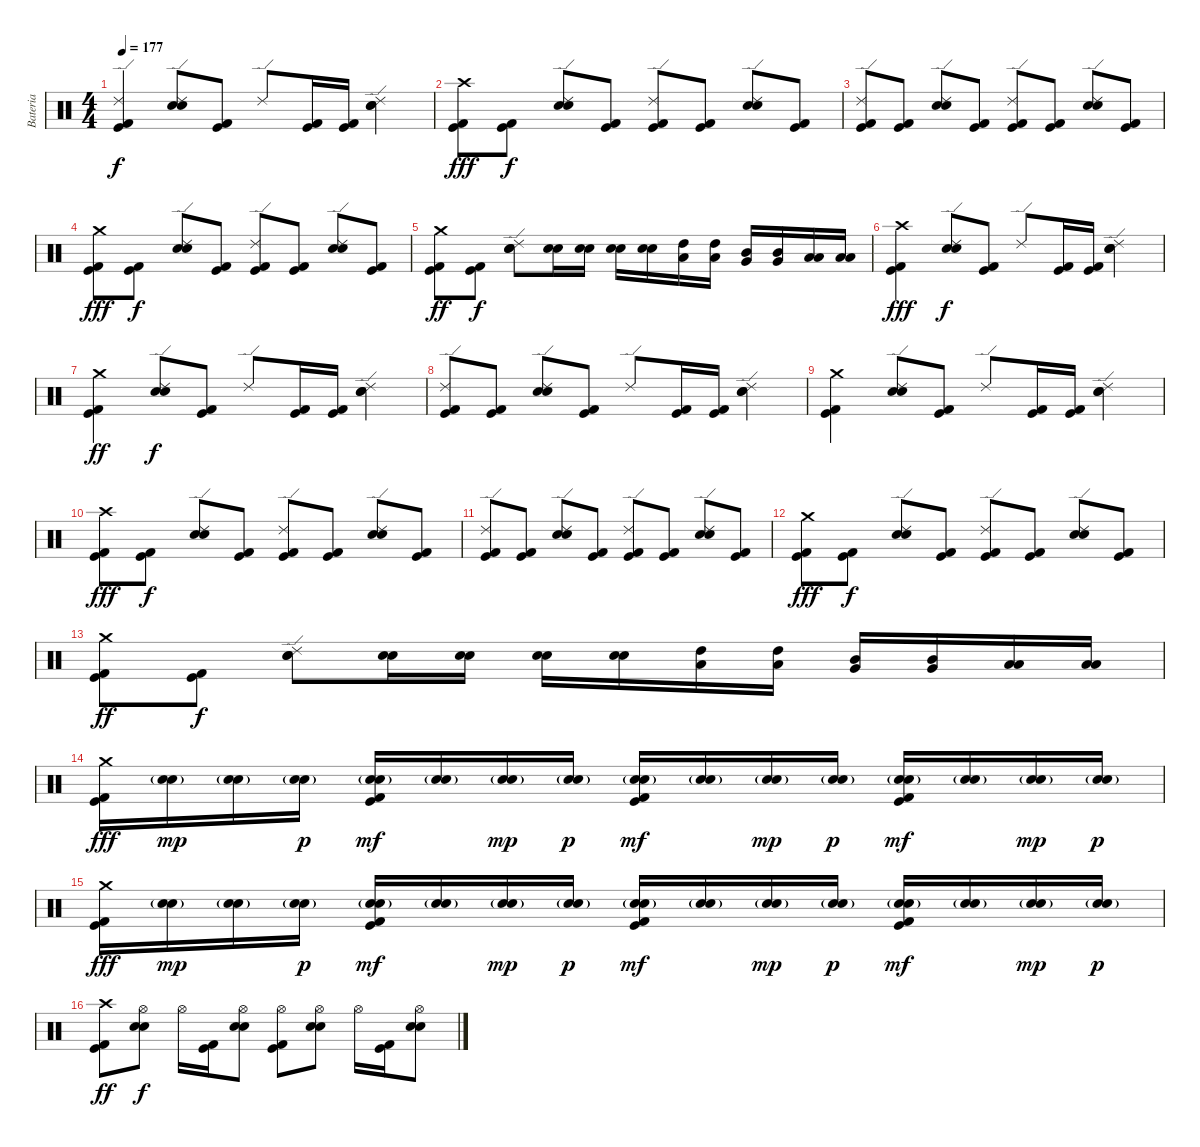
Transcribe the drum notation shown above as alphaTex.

\track ("Bateria" "Bateria") {instrument percussion}
\staff {score}
\articulation defaults
\ts (4 4)
\tempo 177
\clef neutral
\ks c
("Ride (edge) 2" "Kick (hit) 2" "Kick (hit)").4{dy f} ("Ride (edge) 2" "Electric Snare (hit)" "Snare (hit) 2").8 ("Kick (hit) 2" "Kick (hit)").8 "Ride (edge) 2".8 ("Kick (hit) 2" "Kick (hit)").16 ("Kick (hit) 2" "Kick (hit)").16 ("Ride (edge) 2" "Electric Snare (hit)" "Snare (hit) 2").4 |
("Crash high (hit)" "Kick (hit) 2" "Kick (hit)").8{dy fff} ("Kick (hit) 2" "Kick (hit)").8{dy f} ("Ride (edge) 2" "Electric Snare (hit)" "Snare (hit) 2").8 ("Kick (hit) 2" "Kick (hit)").8 ("Ride (edge) 2" "Kick (hit) 2" "Kick (hit)").8 ("Kick (hit) 2" "Kick (hit)").8 ("Ride (edge) 2" "Electric Snare (hit)" "Snare (hit) 2").8 ("Kick (hit) 2" "Kick (hit)").8 |
("Ride (edge) 2" "Kick (hit) 2" "Kick (hit)").8 ("Kick (hit) 2" "Kick (hit)").8 ("Ride (edge) 2" "Electric Snare (hit)" "Snare (hit) 2").8 ("Kick (hit) 2" "Kick (hit)").8 ("Ride (edge) 2" "Kick (hit) 2" "Kick (hit)").8 ("Kick (hit) 2" "Kick (hit)").8 ("Ride (edge) 2" "Electric Snare (hit)" "Snare (hit) 2").8 ("Kick (hit) 2" "Kick (hit)").8 |
("Crash medium (hit)" "Kick (hit) 2" "Kick (hit)").8{dy fff} ("Kick (hit) 2" "Kick (hit)").8{dy f} ("Ride (edge) 2" "Electric Snare (hit)" "Snare (hit) 2").8 ("Kick (hit) 2" "Kick (hit)").8 ("Ride (edge) 2" "Kick (hit) 2" "Kick (hit)").8 ("Kick (hit) 2" "Kick (hit)").8 ("Ride (edge) 2" "Electric Snare (hit)" "Snare (hit) 2").8 ("Kick (hit) 2" "Kick (hit)").8 |
("Crash medium (hit)" "Kick (hit) 2" "Kick (hit)").8{dy ff} ("Kick (hit) 2" "Kick (hit)").8{dy f} ("Ride (edge) 2" "Electric Snare (hit)" "Snare (hit) 2").8 ("Electric Snare (hit)" "Snare (hit) 2").16 ("Electric Snare (hit)" "Snare (hit) 2").16 ("Electric Snare (hit)" "Snare (hit) 2").16 ("Electric Snare (hit)" "Snare (hit) 2").16 ("High Tom (hit)" "Low Tom (hit)").16 ("High Tom (hit)" "Low Tom (hit)").16 ("Mid Tom (hit)" "Very Low Tom (hit)").16 ("Mid Tom (hit)" "Very Low Tom (hit)").16 ("Low Tom (hit)" "Low Floor Tom (hit)").16 ("Low Tom (hit)" "Low Floor Tom (hit)").16 |
("Crash high (hit)" "Kick (hit) 2" "Kick (hit)").4{dy fff} ("Ride (edge) 2" "Electric Snare (hit)" "Snare (hit) 2").8{dy f} ("Kick (hit) 2" "Kick (hit)").8 "Ride (edge) 2".8 ("Kick (hit) 2" "Kick (hit)").16 ("Kick (hit) 2" "Kick (hit)").16 ("Ride (edge) 2" "Electric Snare (hit)" "Snare (hit) 2").4 |
("Crash medium (hit)" "Kick (hit) 2" "Kick (hit)").4{dy ff} ("Ride (edge) 2" "Electric Snare (hit)" "Snare (hit) 2").8{dy f} ("Kick (hit) 2" "Kick (hit)").8 "Ride (edge) 2".8 ("Kick (hit) 2" "Kick (hit)").16 ("Kick (hit) 2" "Kick (hit)").16 ("Ride (edge) 2" "Electric Snare (hit)" "Snare (hit) 2").4 |
("Ride (edge) 2" "Kick (hit) 2" "Kick (hit)").8 ("Kick (hit) 2" "Kick (hit)").8 ("Ride (edge) 2" "Electric Snare (hit)" "Snare (hit) 2").8 ("Kick (hit) 2" "Kick (hit)").8 "Ride (edge) 2".8 ("Kick (hit) 2" "Kick (hit)").16 ("Kick (hit) 2" "Kick (hit)").16 ("Ride (edge) 2" "Electric Snare (hit)" "Snare (hit) 2").4 |
("Crash medium (hit)" "Kick (hit) 2" "Kick (hit)").4 ("Ride (edge) 2" "Electric Snare (hit)" "Snare (hit) 2").8 ("Kick (hit) 2" "Kick (hit)").8 "Ride (edge) 2".8 ("Kick (hit) 2" "Kick (hit)").16 ("Kick (hit) 2" "Kick (hit)").16 ("Ride (edge) 2" "Electric Snare (hit)" "Snare (hit) 2").4 |
("Crash high (hit)" "Kick (hit) 2" "Kick (hit)").8{dy fff} ("Kick (hit) 2" "Kick (hit)").8{dy f} ("Ride (edge) 2" "Electric Snare (hit)" "Snare (hit) 2").8 ("Kick (hit) 2" "Kick (hit)").8 ("Ride (edge) 2" "Kick (hit) 2" "Kick (hit)").8 ("Kick (hit) 2" "Kick (hit)").8 ("Ride (edge) 2" "Electric Snare (hit)" "Snare (hit) 2").8 ("Kick (hit) 2" "Kick (hit)").8 |
("Ride (edge) 2" "Kick (hit) 2" "Kick (hit)").8 ("Kick (hit) 2" "Kick (hit)").8 ("Ride (edge) 2" "Electric Snare (hit)" "Snare (hit) 2").8 ("Kick (hit) 2" "Kick (hit)").8 ("Ride (edge) 2" "Kick (hit) 2" "Kick (hit)").8 ("Kick (hit) 2" "Kick (hit)").8 ("Ride (edge) 2" "Electric Snare (hit)" "Snare (hit) 2").8 ("Kick (hit) 2" "Kick (hit)").8 |
("Crash medium (hit)" "Kick (hit) 2" "Kick (hit)").8{dy fff} ("Kick (hit) 2" "Kick (hit)").8{dy f} ("Ride (edge) 2" "Electric Snare (hit)" "Snare (hit) 2").8 ("Kick (hit) 2" "Kick (hit)").8 ("Ride (edge) 2" "Kick (hit) 2" "Kick (hit)").8 ("Kick (hit) 2" "Kick (hit)").8 ("Ride (edge) 2" "Electric Snare (hit)" "Snare (hit) 2").8 ("Kick (hit) 2" "Kick (hit)").8 |
("Crash medium (hit)" "Kick (hit) 2" "Kick (hit)").8{dy ff} ("Kick (hit) 2" "Kick (hit)").8{dy f} ("Ride (edge) 2" "Electric Snare (hit)" "Snare (hit) 2").8 ("Electric Snare (hit)" "Snare (hit) 2").16 ("Electric Snare (hit)" "Snare (hit) 2").16 ("Electric Snare (hit)" "Snare (hit) 2").16 ("Electric Snare (hit)" "Snare (hit) 2").16 ("High Tom (hit)" "Low Tom (hit)").16 ("High Tom (hit)" "Low Tom (hit)").16 ("Mid Tom (hit)" "Very Low Tom (hit)").16 ("Mid Tom (hit)" "Very Low Tom (hit)").16 ("Low Tom (hit)" "Low Floor Tom (hit)").16 ("Low Tom (hit)" "Low Floor Tom (hit)").16 |
("Crash medium (hit)" "Kick (hit) 2" "Kick (hit)").16{dy fff} ("Electric Snare (hit)"{g} "Snare (hit) 2"{g}).16{dy mp} ("Electric Snare (hit)"{g} "Snare (hit) 2"{g}).16 ("Electric Snare (hit)"{g} "Snare (hit) 2"{g}).16{dy p} ("Electric Snare (hit)"{g} "Snare (hit) 2"{g} "Kick (hit) 2" "Kick (hit)").16{dy mf} ("Electric Snare (hit)"{g} "Snare (hit) 2"{g}).16 ("Electric Snare (hit)"{g} "Snare (hit) 2"{g}).16{dy mp} ("Electric Snare (hit)"{g} "Snare (hit) 2"{g}).16{dy p} ("Electric Snare (hit)"{g} "Snare (hit) 2"{g} "Kick (hit) 2" "Kick (hit)").16{dy mf} ("Electric Snare (hit)"{g} "Snare (hit) 2"{g}).16 ("Electric Snare (hit)"{g} "Snare (hit) 2"{g}).16{dy mp} ("Electric Snare (hit)"{g} "Snare (hit) 2"{g}).16{dy p} ("Electric Snare (hit)"{g} "Snare (hit) 2"{g} "Kick (hit) 2" "Kick (hit)").16{dy mf} ("Electric Snare (hit)"{g} "Snare (hit) 2"{g}).16 ("Electric Snare (hit)"{g} "Snare (hit) 2"{g}).16{dy mp} ("Electric Snare (hit)"{g} "Snare (hit) 2"{g}).16{dy p} |
("Crash medium (hit)" "Kick (hit) 2" "Kick (hit)").16{dy fff} ("Electric Snare (hit)"{g} "Snare (hit) 2"{g}).16{dy mp} ("Electric Snare (hit)"{g} "Snare (hit) 2"{g}).16 ("Electric Snare (hit)"{g} "Snare (hit) 2"{g}).16{dy p} ("Electric Snare (hit)"{g} "Snare (hit) 2"{g} "Kick (hit) 2" "Kick (hit)").16{dy mf} ("Electric Snare (hit)"{g} "Snare (hit) 2"{g}).16 ("Electric Snare (hit)"{g} "Snare (hit) 2"{g}).16{dy mp} ("Electric Snare (hit)"{g} "Snare (hit) 2"{g}).16{dy p} ("Electric Snare (hit)"{g} "Snare (hit) 2"{g} "Kick (hit) 2" "Kick (hit)").16{dy mf} ("Electric Snare (hit)"{g} "Snare (hit) 2"{g}).16 ("Electric Snare (hit)"{g} "Snare (hit) 2"{g}).16{dy mp} ("Electric Snare (hit)"{g} "Snare (hit) 2"{g}).16{dy p} ("Electric Snare (hit)"{g} "Snare (hit) 2"{g} "Kick (hit) 2" "Kick (hit)").16{dy mf} ("Electric Snare (hit)"{g} "Snare (hit) 2"{g}).16 ("Electric Snare (hit)"{g} "Snare (hit) 2"{g}).16{dy mp} ("Electric Snare (hit)"{g} "Snare (hit) 2"{g}).16{dy p} |
("Crash high (hit)" "Kick (hit) 2" "Kick (hit)").8{dy ff} ("Hi-Hat (open)" "Electric Snare (hit)" "Snare (hit) 2").8{dy f} "Hi-Hat (open)".16 ("Kick (hit) 2" "Kick (hit)").16 ("Hi-Hat (open)" "Electric Snare (hit)" "Snare (hit) 2").8 ("Hi-Hat (open)" "Kick (hit) 2" "Kick (hit)").8 ("Hi-Hat (open)" "Electric Snare (hit)" "Snare (hit) 2").8 "Hi-Hat (open)".16 ("Kick (hit) 2" "Kick (hit)").16 ("Hi-Hat (open)" "Electric Snare (hit)" "Snare (hit) 2").8
